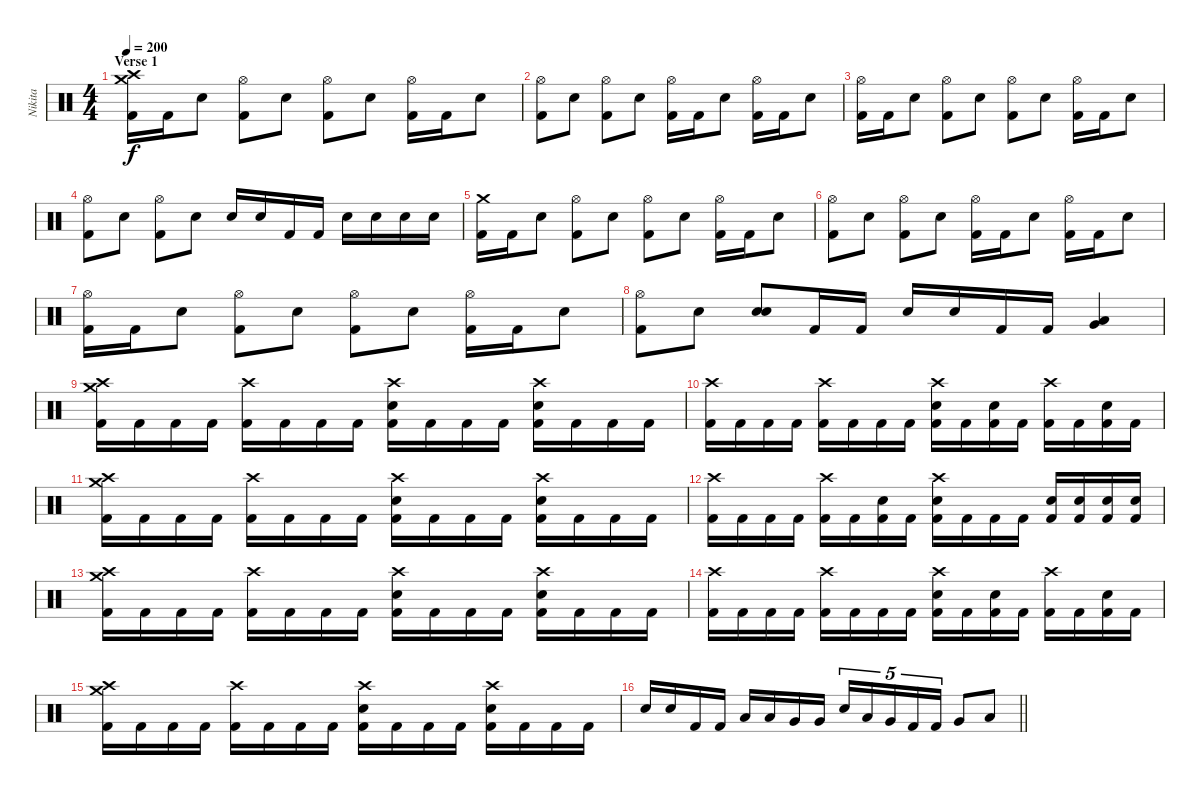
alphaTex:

\track ("Nikita" "Nikita") {instrument percussion}
\staff {score}
\articulation defaults
\ts (4 4)
\section ("" "Verse 1")
\tempo 200
\clef neutral
\ks c
("Crash high (hit)" "Crash medium (hit)" "Kick (hit) 2").16{dy f} "Kick (hit) 2".16 "Electric Snare (hit)".8 ("Hi-Hat (open)" "Kick (hit) 2").8 "Electric Snare (hit)".8 ("Hi-Hat (open)" "Kick (hit) 2").8 "Electric Snare (hit)".8 ("Hi-Hat (open)" "Kick (hit) 2").16 "Kick (hit) 2".16 "Electric Snare (hit)".8 |
("Hi-Hat (open)" "Kick (hit) 2").8 "Electric Snare (hit)".8 ("Hi-Hat (open)" "Kick (hit) 2").8 "Electric Snare (hit)".8 ("Hi-Hat (open)" "Kick (hit) 2").16 "Kick (hit) 2".16 "Electric Snare (hit)".8 ("Hi-Hat (open)" "Kick (hit) 2").16 "Kick (hit) 2".16 "Electric Snare (hit)".8 |
("Hi-Hat (open)" "Kick (hit) 2").16 "Kick (hit) 2".16 "Electric Snare (hit)".8 ("Hi-Hat (open)" "Kick (hit) 2").8 "Electric Snare (hit)".8 ("Hi-Hat (open)" "Kick (hit) 2").8 "Electric Snare (hit)".8 ("Hi-Hat (open)" "Kick (hit) 2").16 "Kick (hit) 2".16 "Electric Snare (hit)".8 |
("Hi-Hat (open)" "Kick (hit) 2").8 "Electric Snare (hit)".8 ("Hi-Hat (open)" "Kick (hit) 2").8 "Electric Snare (hit)".8 "Electric Snare (hit)".16 "Electric Snare (hit)".16 "Kick (hit) 2".16 "Kick (hit) 2".16 "Electric Snare (hit)".16 "Electric Snare (hit)".16 "Electric Snare (hit)".16 "Electric Snare (hit)".16 |
("Crash medium (hit)" "Kick (hit) 2").16 "Kick (hit) 2".16 "Electric Snare (hit)".8 ("Hi-Hat (open)" "Kick (hit) 2").8 "Electric Snare (hit)".8 ("Hi-Hat (open)" "Kick (hit) 2").8 "Electric Snare (hit)".8 ("Hi-Hat (open)" "Kick (hit) 2").16 "Kick (hit) 2".16 "Electric Snare (hit)".8 |
("Hi-Hat (open)" "Kick (hit) 2").8 "Electric Snare (hit)".8 ("Hi-Hat (open)" "Kick (hit) 2").8 "Electric Snare (hit)".8 ("Hi-Hat (open)" "Kick (hit) 2").16 "Kick (hit) 2".16 "Electric Snare (hit)".8 ("Hi-Hat (open)" "Kick (hit) 2").16 "Kick (hit) 2".16 "Electric Snare (hit)".8 |
("Hi-Hat (open)" "Kick (hit) 2").16 "Kick (hit) 2".16 "Electric Snare (hit)".8 ("Hi-Hat (open)" "Kick (hit) 2").8 "Electric Snare (hit)".8 ("Hi-Hat (open)" "Kick (hit) 2").8 "Electric Snare (hit)".8 ("Hi-Hat (open)" "Kick (hit) 2").16 "Kick (hit) 2".16 "Electric Snare (hit)".8 |
("Hi-Hat (open)" "Kick (hit) 2").8 "Electric Snare (hit)".8 ("Metronome (bell)" "Electric Snare (hit)").8 "Kick (hit) 2".16 "Kick (hit) 2".16 "Electric Snare (hit)".16 "Electric Snare (hit)".16 "Kick (hit) 2".16 "Kick (hit) 2".16 ("Low Tom (hit)" "Very Low Tom (hit)").4 |
("Crash medium (hit)" "Crash high (hit)" "Kick (hit) 2").16 "Kick (hit) 2".16 "Kick (hit) 2".16 "Kick (hit) 2".16 ("Crash high (hit)" "Kick (hit) 2").16 "Kick (hit) 2".16 "Kick (hit) 2".16 "Kick (hit) 2".16 ("Crash high (hit)" "Electric Snare (hit)" "Kick (hit) 2").16 "Kick (hit) 2".16 "Kick (hit) 2".16 "Kick (hit) 2".16 ("Crash high (hit)" "Electric Snare (hit)" "Kick (hit) 2").16 "Kick (hit) 2".16 "Kick (hit) 2".16 "Kick (hit) 2".16 |
("Crash high (hit)" "Kick (hit) 2").16 "Kick (hit) 2".16 "Kick (hit) 2".16 "Kick (hit) 2".16 ("Crash high (hit)" "Kick (hit) 2").16 "Kick (hit) 2".16 "Kick (hit) 2".16 "Kick (hit) 2".16 ("Crash high (hit)" "Electric Snare (hit)" "Kick (hit) 2").16 "Kick (hit) 2".16 ("Electric Snare (hit)" "Kick (hit) 2").16 "Kick (hit) 2".16 ("Crash high (hit)" "Kick (hit) 2").16 "Kick (hit) 2".16 ("Electric Snare (hit)" "Kick (hit) 2").16 "Kick (hit) 2".16 |
("Crash medium (hit)" "Crash high (hit)" "Kick (hit) 2").16 "Kick (hit) 2".16 "Kick (hit) 2".16 "Kick (hit) 2".16 ("Crash high (hit)" "Kick (hit) 2").16 "Kick (hit) 2".16 "Kick (hit) 2".16 "Kick (hit) 2".16 ("Crash high (hit)" "Electric Snare (hit)" "Kick (hit) 2").16 "Kick (hit) 2".16 "Kick (hit) 2".16 "Kick (hit) 2".16 ("Crash high (hit)" "Electric Snare (hit)" "Kick (hit) 2").16 "Kick (hit) 2".16 "Kick (hit) 2".16 "Kick (hit) 2".16 |
("Crash high (hit)" "Kick (hit) 2").16 "Kick (hit) 2".16 "Kick (hit) 2".16 "Kick (hit) 2".16 ("Crash high (hit)" "Kick (hit) 2").16 "Kick (hit) 2".16 ("Electric Snare (hit)" "Kick (hit) 2").16 "Kick (hit) 2".16 ("Crash high (hit)" "Electric Snare (hit)" "Kick (hit) 2").16 "Kick (hit) 2".16 "Kick (hit) 2".16 "Kick (hit) 2".16 ("Electric Snare (hit)" "Kick (hit) 2").16 ("Electric Snare (hit)" "Kick (hit) 2").16 ("Electric Snare (hit)" "Kick (hit) 2").16 ("Electric Snare (hit)" "Kick (hit) 2").16 |
("Crash medium (hit)" "Crash high (hit)" "Kick (hit) 2").16 "Kick (hit) 2".16 "Kick (hit) 2".16 "Kick (hit) 2".16 ("Crash high (hit)" "Kick (hit) 2").16 "Kick (hit) 2".16 "Kick (hit) 2".16 "Kick (hit) 2".16 ("Crash high (hit)" "Electric Snare (hit)" "Kick (hit) 2").16 "Kick (hit) 2".16 "Kick (hit) 2".16 "Kick (hit) 2".16 ("Crash high (hit)" "Electric Snare (hit)" "Kick (hit) 2").16 "Kick (hit) 2".16 "Kick (hit) 2".16 "Kick (hit) 2".16 |
("Crash high (hit)" "Kick (hit) 2").16 "Kick (hit) 2".16 "Kick (hit) 2".16 "Kick (hit) 2".16 ("Crash high (hit)" "Kick (hit) 2").16 "Kick (hit) 2".16 "Kick (hit) 2".16 "Kick (hit) 2".16 ("Crash high (hit)" "Electric Snare (hit)" "Kick (hit) 2").16 "Kick (hit) 2".16 ("Electric Snare (hit)" "Kick (hit) 2").16 "Kick (hit) 2".16 ("Crash high (hit)" "Kick (hit) 2").16 "Kick (hit) 2".16 ("Electric Snare (hit)" "Kick (hit) 2").16 "Kick (hit) 2".16 |
("Crash medium (hit)" "Crash high (hit)" "Kick (hit) 2").16 "Kick (hit) 2".16 "Kick (hit) 2".16 "Kick (hit) 2".16 ("Crash high (hit)" "Kick (hit) 2").16 "Kick (hit) 2".16 "Kick (hit) 2".16 "Kick (hit) 2".16 ("Crash high (hit)" "Electric Snare (hit)" "Kick (hit) 2").16 "Kick (hit) 2".16 "Kick (hit) 2".16 "Kick (hit) 2".16 ("Crash high (hit)" "Electric Snare (hit)" "Kick (hit) 2").16 "Kick (hit) 2".16 "Kick (hit) 2".16 "Kick (hit) 2".16 |
\barLineRight lightlight "Electric Snare (hit)".16 "Electric Snare (hit)".16 "Kick (hit) 2".16 "Kick (hit) 2".16 "Low Tom (hit)".16 "Low Tom (hit)".16 "Very Low Tom (hit)".16 "Very Low Tom (hit)".16 "Electric Snare (hit)".16{tu (5 4)} "Low Tom (hit)".16{tu (5 4)} "Very Low Tom (hit)".16{tu (5 4)} "Kick (hit) 2".16{tu (5 4)} "Kick (hit) 2".16{tu (5 4)} "Very Low Tom (hit)".8 "Low Tom (hit)".8
